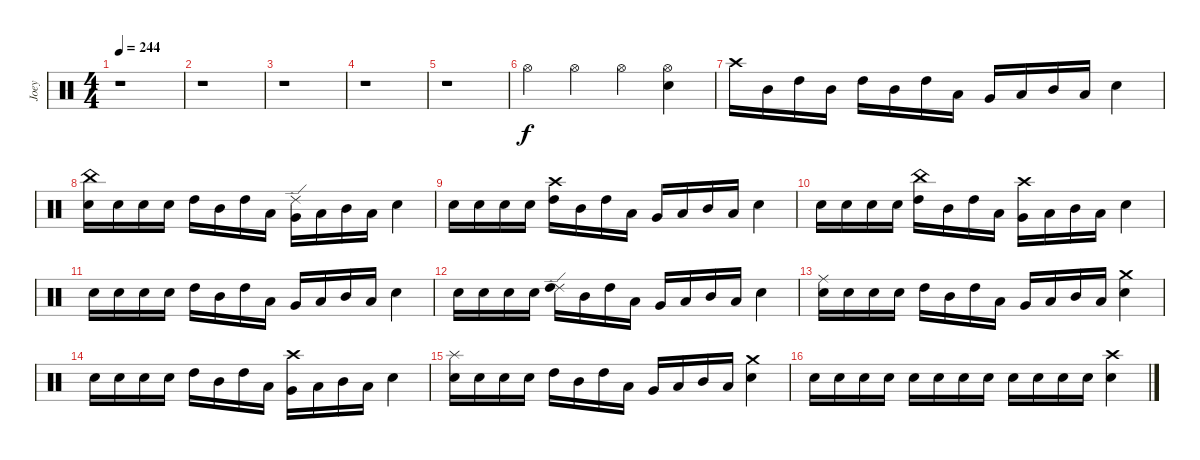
\track ("Joey" "Joey") {instrument percussion}
\staff {score}
\articulation defaults
\ts (4 4)
\tempo 244
\clef neutral
\ks c
r.1{dy f} |
r.1 |
r.1 |
r.1 |
r.1 |
"Hi-Hat (open)".4 "Hi-Hat (open)".4 "Hi-Hat (open)".4 ("Hi-Hat (open)" "Snare (hit) 2").4 |
"Crash high (hit)".16 "Mid Tom (hit)".16 "High Tom (hit)".16 "Mid Tom (hit)".16 "High Tom (hit)".16 "Mid Tom (hit)".16 "High Tom (hit)".16 "Low Tom (hit)".16 "Very Low Tom (hit)".16 "Low Floor Tom (hit)".16 "Mid Tom (hit)".16 "Low Floor Tom (hit)".16 "Snare (hit) 2".4 |
("China (hit)" "Snare (hit) 2").16 "Snare (hit) 2".16 "Snare (hit) 2".16 "Snare (hit) 2".16 "High Tom (hit)".16 "Mid Tom (hit)".16 "High Tom (hit)".16 "Low Tom (hit)".16 ("Ride (edge) 2" "Very Low Tom (hit)").16 "Low Floor Tom (hit)".16 "Mid Tom (hit)".16 "Low Floor Tom (hit)".16 "Snare (hit) 2".4 |
"Snare (hit) 2".16 "Snare (hit) 2".16 "Snare (hit) 2".16 "Snare (hit) 2".16 ("Crash high (hit)" "High Tom (hit)").16 "Mid Tom (hit)".16 "High Tom (hit)".16 "Low Tom (hit)".16 "Very Low Tom (hit)".16 "Low Floor Tom (hit)".16 "Mid Tom (hit)".16 "Low Floor Tom (hit)".16 "Snare (hit) 2".4 |
"Snare (hit) 2".16 "Snare (hit) 2".16 "Snare (hit) 2".16 "Snare (hit) 2".16 ("China (hit)" "High Tom (hit)").16 "Mid Tom (hit)".16 "High Tom (hit)".16 "Low Tom (hit)".16 ("Crash high (hit)" "Very Low Tom (hit)").16 "Low Floor Tom (hit)".16 "Mid Tom (hit)".16 "Low Floor Tom (hit)".16 "Snare (hit) 2".4 |
"Snare (hit) 2".16 "Snare (hit) 2".16 "Snare (hit) 2".16 "Snare (hit) 2".16 "High Tom (hit)".16 "Mid Tom (hit)".16 "High Tom (hit)".16 "Low Tom (hit)".16 "Very Low Tom (hit)".16 "Low Floor Tom (hit)".16 "Mid Tom (hit)".16 "Low Floor Tom (hit)".16 "Snare (hit) 2".4 |
"Snare (hit) 2".16 "Snare (hit) 2".16 "Snare (hit) 2".16 "Snare (hit) 2".16 ("Ride (edge) 2" "High Tom (hit)").16 "Mid Tom (hit)".16 "High Tom (hit)".16 "Low Tom (hit)".16 "Very Low Tom (hit)".16 "Low Floor Tom (hit)".16 "Mid Tom (hit)".16 "Low Floor Tom (hit)".16 "Snare (hit) 2".4 |
("Ride (middle)" "Snare (hit) 2").16 "Snare (hit) 2".16 "Snare (hit) 2".16 "Snare (hit) 2".16 "High Tom (hit)".16 "Mid Tom (hit)".16 "High Tom (hit)".16 "Low Tom (hit)".16 "Very Low Tom (hit)".16 "Low Floor Tom (hit)".16 "Mid Tom (hit)".16 "Low Floor Tom (hit)".16 ("Crash medium (hit)" "Snare (hit) 2").4 |
"Snare (hit) 2".16 "Snare (hit) 2".16 "Snare (hit) 2".16 "Snare (hit) 2".16 "High Tom (hit)".16 "Mid Tom (hit)".16 "High Tom (hit)".16 "Low Tom (hit)".16 ("Crash high (hit)" "Very Low Tom (hit)").16 "Low Floor Tom (hit)".16 "Mid Tom (hit)".16 "Low Floor Tom (hit)".16 "Snare (hit) 2".4 |
("Splash (hit)" "Snare (hit) 2").16 "Snare (hit) 2".16 "Snare (hit) 2".16 "Snare (hit) 2".16 "High Tom (hit)".16 "Mid Tom (hit)".16 "High Tom (hit)".16 "Low Tom (hit)".16 "Very Low Tom (hit)".16 "Low Floor Tom (hit)".16 "Mid Tom (hit)".16 "Low Floor Tom (hit)".16 ("Crash medium (hit)" "Snare (hit) 2").4 |
"Snare (hit) 2".16 "Snare (hit) 2".16 "Snare (hit) 2".16 "Snare (hit) 2".16 "Snare (hit) 2".16 "Snare (hit) 2".16 "Snare (hit) 2".16 "Snare (hit) 2".16 "Snare (hit) 2".16 "Snare (hit) 2".16 "Snare (hit) 2".16 "Snare (hit) 2".16 ("Crash high (hit)" "Snare (hit) 2").4
